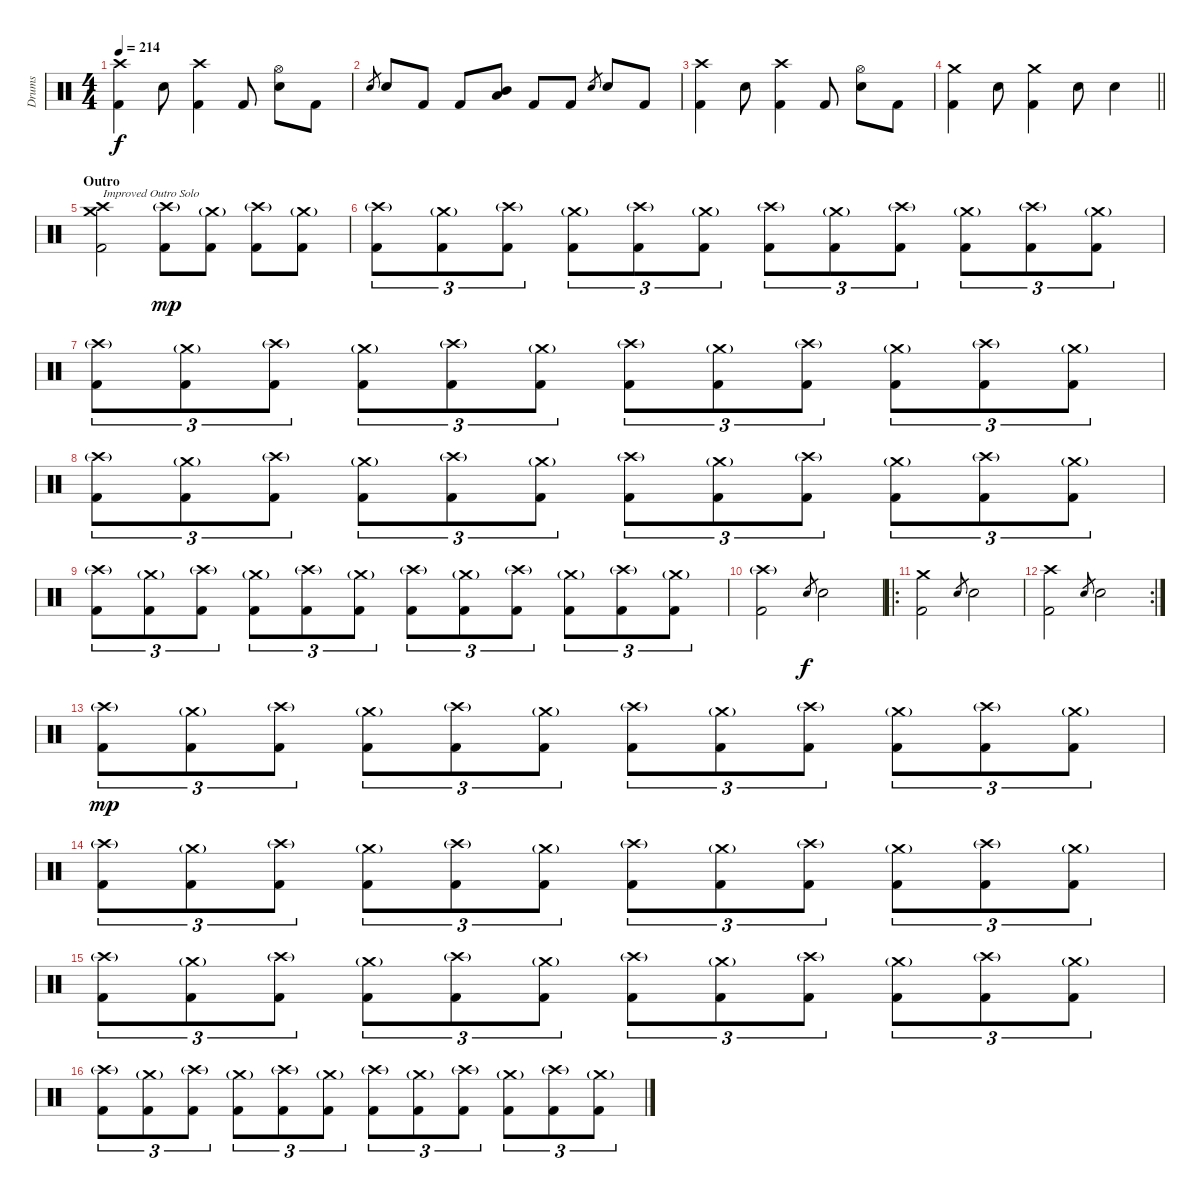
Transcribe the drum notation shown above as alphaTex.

\track ("Drums" "Drums") {instrument percussion}
\staff {score}
\articulation defaults
\ts (4 4)
\tempo 214
\clef neutral
\ks c
("Crash high (hit)" "Kick (hit) 2").4{dy f} "Electric Snare (hit)".8 ("Crash high (hit)" "Kick (hit) 2").4 "Kick (hit) 2".8 ("Hi-Hat (open)" "Electric Snare (hit)").8 "Kick (hit) 2".8 |
"Electric Snare (hit)".8{gr} "Electric Snare (hit)".8 "Kick (hit) 2".8 "Kick (hit) 2".8 ("Mid Tom (hit)" "Low Tom (hit)").8 "Kick (hit) 2".8 "Kick (hit) 2".8 "Electric Snare (hit)".8{gr} "Electric Snare (hit)".8 "Kick (hit) 2".8 |
("Crash high (hit)" "Kick (hit) 2").4 "Electric Snare (hit)".8 ("Crash high (hit)" "Kick (hit) 2").4 "Kick (hit) 2".8 ("Hi-Hat (open)" "Electric Snare (hit)").8 "Kick (hit) 2".8 |
\barLineRight lightlight
("Crash medium (hit)" "Kick (hit) 2").4 "Electric Snare (hit)".8 ("Crash medium (hit)" "Kick (hit) 2").4 "Electric Snare (hit)".8 "Electric Snare (hit)".4 |
\section ("" "Outro")
("Crash medium (hit)" "Crash high (hit)" "Kick (hit) 2").2{txt "Improved Outro Solo"} ("Crash high (hit)"{g} "Kick (hit) 2").8{dy mp} ("Crash medium (hit)"{g} "Kick (hit) 2").8 ("Crash high (hit)"{g} "Kick (hit) 2").8 ("Crash medium (hit)"{g} "Kick (hit) 2").8 |
("Crash high (hit)"{g} "Kick (hit) 2").8{tu (3 2)} ("Crash medium (hit)"{g} "Kick (hit) 2").8{tu (3 2)} ("Crash high (hit)"{g} "Kick (hit) 2").8{tu (3 2)} ("Crash medium (hit)"{g} "Kick (hit) 2").8{tu (3 2)} ("Crash high (hit)"{g} "Kick (hit) 2").8{tu (3 2)} ("Crash medium (hit)"{g} "Kick (hit) 2").8{tu (3 2)} ("Crash high (hit)"{g} "Kick (hit) 2").8{tu (3 2)} ("Crash medium (hit)"{g} "Kick (hit) 2").8{tu (3 2)} ("Crash high (hit)"{g} "Kick (hit) 2").8{tu (3 2)} ("Crash medium (hit)"{g} "Kick (hit) 2").8{tu (3 2)} ("Crash high (hit)"{g} "Kick (hit) 2").8{tu (3 2)} ("Crash medium (hit)"{g} "Kick (hit) 2").8{tu (3 2)} |
("Crash high (hit)"{g} "Kick (hit) 2").8{tu (3 2)} ("Crash medium (hit)"{g} "Kick (hit) 2").8{tu (3 2)} ("Crash high (hit)"{g} "Kick (hit) 2").8{tu (3 2)} ("Crash medium (hit)"{g} "Kick (hit) 2").8{tu (3 2)} ("Crash high (hit)"{g} "Kick (hit) 2").8{tu (3 2)} ("Crash medium (hit)"{g} "Kick (hit) 2").8{tu (3 2)} ("Crash high (hit)"{g} "Kick (hit) 2").8{tu (3 2)} ("Crash medium (hit)"{g} "Kick (hit) 2").8{tu (3 2)} ("Crash high (hit)"{g} "Kick (hit) 2").8{tu (3 2)} ("Crash medium (hit)"{g} "Kick (hit) 2").8{tu (3 2)} ("Crash high (hit)"{g} "Kick (hit) 2").8{tu (3 2)} ("Crash medium (hit)"{g} "Kick (hit) 2").8{tu (3 2)} |
("Crash high (hit)"{g} "Kick (hit) 2").8{tu (3 2)} ("Crash medium (hit)"{g} "Kick (hit) 2").8{tu (3 2)} ("Crash high (hit)"{g} "Kick (hit) 2").8{tu (3 2)} ("Crash medium (hit)"{g} "Kick (hit) 2").8{tu (3 2)} ("Crash high (hit)"{g} "Kick (hit) 2").8{tu (3 2)} ("Crash medium (hit)"{g} "Kick (hit) 2").8{tu (3 2)} ("Crash high (hit)"{g} "Kick (hit) 2").8{tu (3 2)} ("Crash medium (hit)"{g} "Kick (hit) 2").8{tu (3 2)} ("Crash high (hit)"{g} "Kick (hit) 2").8{tu (3 2)} ("Crash medium (hit)"{g} "Kick (hit) 2").8{tu (3 2)} ("Crash high (hit)"{g} "Kick (hit) 2").8{tu (3 2)} ("Crash medium (hit)"{g} "Kick (hit) 2").8{tu (3 2)} |
("Crash high (hit)"{g} "Kick (hit) 2").8{tu (3 2)} ("Crash medium (hit)"{g} "Kick (hit) 2").8{tu (3 2)} ("Crash high (hit)"{g} "Kick (hit) 2").8{tu (3 2)} ("Crash medium (hit)"{g} "Kick (hit) 2").8{tu (3 2)} ("Crash high (hit)"{g} "Kick (hit) 2").8{tu (3 2)} ("Crash medium (hit)"{g} "Kick (hit) 2").8{tu (3 2)} ("Crash high (hit)"{g} "Kick (hit) 2").8{tu (3 2)} ("Crash medium (hit)"{g} "Kick (hit) 2").8{tu (3 2)} ("Crash high (hit)"{g} "Kick (hit) 2").8{tu (3 2)} ("Crash medium (hit)"{g} "Kick (hit) 2").8{tu (3 2)} ("Crash high (hit)"{g} "Kick (hit) 2").8{tu (3 2)} ("Crash medium (hit)"{g} "Kick (hit) 2").8{tu (3 2)} |
("Crash high (hit)"{g} "Kick (hit) 2").2 "Electric Snare (hit)".8{gr dy f} "Electric Snare (hit)".2 |
\ro
("Crash medium (hit)" "Kick (hit) 2").2 "Electric Snare (hit)".8{gr} "Electric Snare (hit)".2 |
\rc 2
("Crash high (hit)" "Kick (hit) 2").2 "Electric Snare (hit)".8{gr} "Electric Snare (hit)".2 |
("Crash high (hit)"{g} "Kick (hit) 2").8{tu (3 2) dy mp} ("Crash medium (hit)"{g} "Kick (hit) 2").8{tu (3 2)} ("Crash high (hit)"{g} "Kick (hit) 2").8{tu (3 2)} ("Crash medium (hit)"{g} "Kick (hit) 2").8{tu (3 2)} ("Crash high (hit)"{g} "Kick (hit) 2").8{tu (3 2)} ("Crash medium (hit)"{g} "Kick (hit) 2").8{tu (3 2)} ("Crash high (hit)"{g} "Kick (hit) 2").8{tu (3 2)} ("Crash medium (hit)"{g} "Kick (hit) 2").8{tu (3 2)} ("Crash high (hit)"{g} "Kick (hit) 2").8{tu (3 2)} ("Crash medium (hit)"{g} "Kick (hit) 2").8{tu (3 2)} ("Crash high (hit)"{g} "Kick (hit) 2").8{tu (3 2)} ("Crash medium (hit)"{g} "Kick (hit) 2").8{tu (3 2)} |
("Crash high (hit)"{g} "Kick (hit) 2").8{tu (3 2)} ("Crash medium (hit)"{g} "Kick (hit) 2").8{tu (3 2)} ("Crash high (hit)"{g} "Kick (hit) 2").8{tu (3 2)} ("Crash medium (hit)"{g} "Kick (hit) 2").8{tu (3 2)} ("Crash high (hit)"{g} "Kick (hit) 2").8{tu (3 2)} ("Crash medium (hit)"{g} "Kick (hit) 2").8{tu (3 2)} ("Crash high (hit)"{g} "Kick (hit) 2").8{tu (3 2)} ("Crash medium (hit)"{g} "Kick (hit) 2").8{tu (3 2)} ("Crash high (hit)"{g} "Kick (hit) 2").8{tu (3 2)} ("Crash medium (hit)"{g} "Kick (hit) 2").8{tu (3 2)} ("Crash high (hit)"{g} "Kick (hit) 2").8{tu (3 2)} ("Crash medium (hit)"{g} "Kick (hit) 2").8{tu (3 2)} |
("Crash high (hit)"{g} "Kick (hit) 2").8{tu (3 2)} ("Crash medium (hit)"{g} "Kick (hit) 2").8{tu (3 2)} ("Crash high (hit)"{g} "Kick (hit) 2").8{tu (3 2)} ("Crash medium (hit)"{g} "Kick (hit) 2").8{tu (3 2)} ("Crash high (hit)"{g} "Kick (hit) 2").8{tu (3 2)} ("Crash medium (hit)"{g} "Kick (hit) 2").8{tu (3 2)} ("Crash high (hit)"{g} "Kick (hit) 2").8{tu (3 2)} ("Crash medium (hit)"{g} "Kick (hit) 2").8{tu (3 2)} ("Crash high (hit)"{g} "Kick (hit) 2").8{tu (3 2)} ("Crash medium (hit)"{g} "Kick (hit) 2").8{tu (3 2)} ("Crash high (hit)"{g} "Kick (hit) 2").8{tu (3 2)} ("Crash medium (hit)"{g} "Kick (hit) 2").8{tu (3 2)} |
("Crash high (hit)"{g} "Kick (hit) 2").8{tu (3 2)} ("Crash medium (hit)"{g} "Kick (hit) 2").8{tu (3 2)} ("Crash high (hit)"{g} "Kick (hit) 2").8{tu (3 2)} ("Crash medium (hit)"{g} "Kick (hit) 2").8{tu (3 2)} ("Crash high (hit)"{g} "Kick (hit) 2").8{tu (3 2)} ("Crash medium (hit)"{g} "Kick (hit) 2").8{tu (3 2)} ("Crash high (hit)"{g} "Kick (hit) 2").8{tu (3 2)} ("Crash medium (hit)"{g} "Kick (hit) 2").8{tu (3 2)} ("Crash high (hit)"{g} "Kick (hit) 2").8{tu (3 2)} ("Crash medium (hit)"{g} "Kick (hit) 2").8{tu (3 2)} ("Crash high (hit)"{g} "Kick (hit) 2").8{tu (3 2)} ("Crash medium (hit)"{g} "Kick (hit) 2").8{tu (3 2)}
